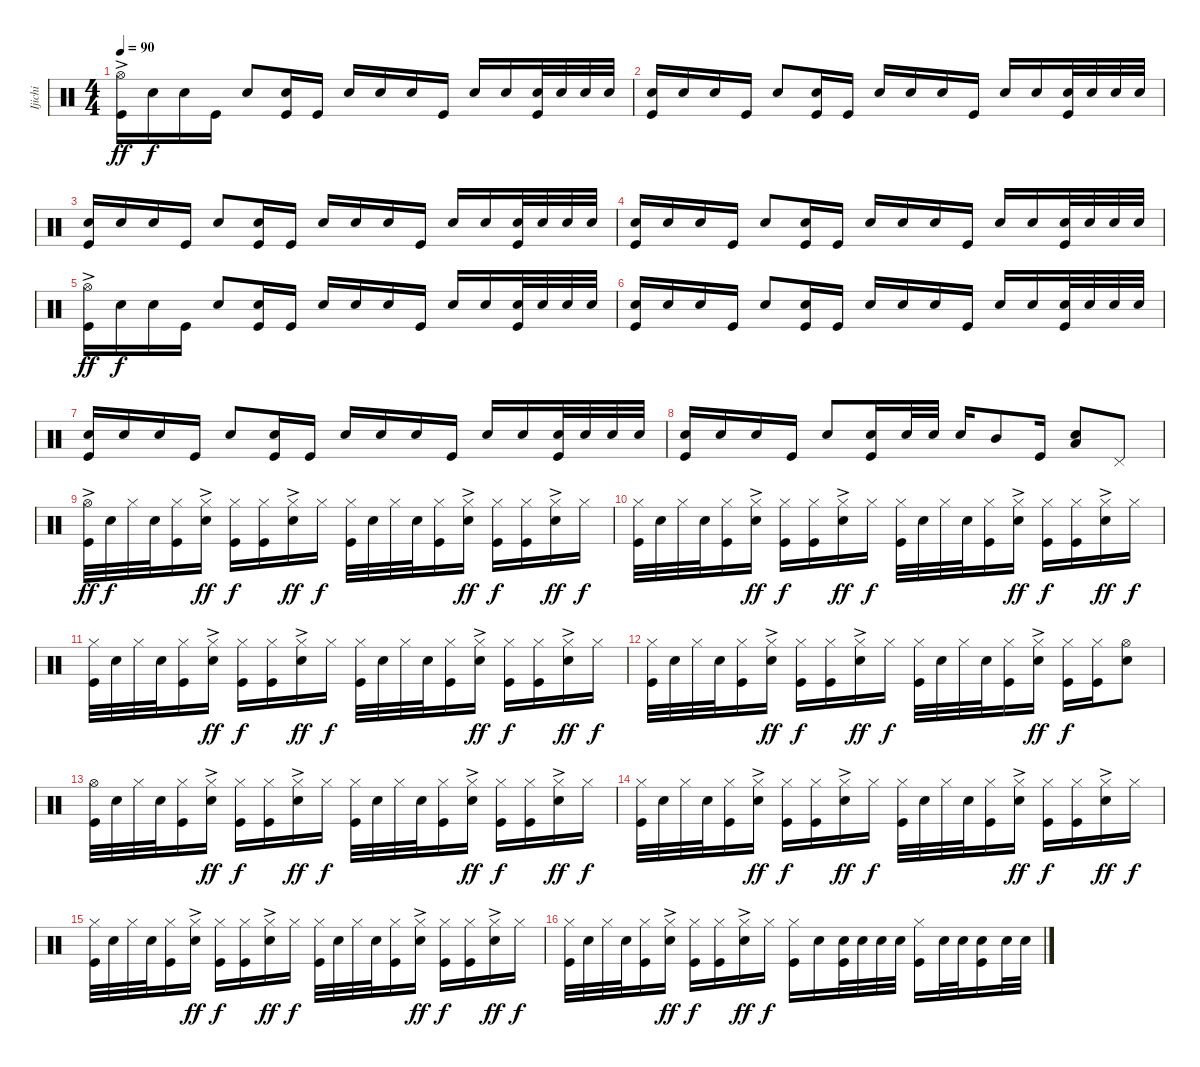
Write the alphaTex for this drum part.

\track ("Ijichi" "Ijichi") {instrument percussion}
\staff {score}
\articulation defaults
\ts (4 4)
\tempo 90
\clef neutral
\ks c
("Hi-Hat (open)"{ac} "Kick (hit)").16{dy ff} "Snare (hit) 2".16{dy f} "Snare (hit) 2".16 "Kick (hit)".16 "Snare (hit) 2".8 ("Snare (hit) 2" "Kick (hit)").16 "Kick (hit)".16 "Snare (hit) 2".16 "Snare (hit) 2".16 "Snare (hit) 2".16 "Kick (hit)".16 "Snare (hit) 2".16 "Snare (hit) 2".16 ("Snare (hit) 2" "Kick (hit)").32 "Snare (hit) 2".32 "Snare (hit) 2".32 "Snare (hit) 2".32 |
("Snare (hit) 2" "Kick (hit)").16 "Snare (hit) 2".16 "Snare (hit) 2".16 "Kick (hit)".16 "Snare (hit) 2".8 ("Snare (hit) 2" "Kick (hit)").16 "Kick (hit)".16 "Snare (hit) 2".16 "Snare (hit) 2".16 "Snare (hit) 2".16 "Kick (hit)".16 "Snare (hit) 2".16 "Snare (hit) 2".16 ("Snare (hit) 2" "Kick (hit)").32 "Snare (hit) 2".32 "Snare (hit) 2".32 "Snare (hit) 2".32 |
("Snare (hit) 2" "Kick (hit)").16 "Snare (hit) 2".16 "Snare (hit) 2".16 "Kick (hit)".16 "Snare (hit) 2".8 ("Snare (hit) 2" "Kick (hit)").16 "Kick (hit)".16 "Snare (hit) 2".16 "Snare (hit) 2".16 "Snare (hit) 2".16 "Kick (hit)".16 "Snare (hit) 2".16 "Snare (hit) 2".16 ("Snare (hit) 2" "Kick (hit)").32 "Snare (hit) 2".32 "Snare (hit) 2".32 "Snare (hit) 2".32 |
("Snare (hit) 2" "Kick (hit)").16 "Snare (hit) 2".16 "Snare (hit) 2".16 "Kick (hit)".16 "Snare (hit) 2".8 ("Snare (hit) 2" "Kick (hit)").16 "Kick (hit)".16 "Snare (hit) 2".16 "Snare (hit) 2".16 "Snare (hit) 2".16 "Kick (hit)".16 "Snare (hit) 2".16 "Snare (hit) 2".16 ("Snare (hit) 2" "Kick (hit)").32 "Snare (hit) 2".32 "Snare (hit) 2".32 "Snare (hit) 2".32 |
("Hi-Hat (open)"{ac} "Kick (hit)").16{dy ff} "Snare (hit) 2".16{dy f} "Snare (hit) 2".16 "Kick (hit)".16 "Snare (hit) 2".8 ("Snare (hit) 2" "Kick (hit)").16 "Kick (hit)".16 "Snare (hit) 2".16 "Snare (hit) 2".16 "Snare (hit) 2".16 "Kick (hit)".16 "Snare (hit) 2".16 "Snare (hit) 2".16 ("Snare (hit) 2" "Kick (hit)").32 "Snare (hit) 2".32 "Snare (hit) 2".32 "Snare (hit) 2".32 |
("Snare (hit) 2" "Kick (hit)").16 "Snare (hit) 2".16 "Snare (hit) 2".16 "Kick (hit)".16 "Snare (hit) 2".8 ("Snare (hit) 2" "Kick (hit)").16 "Kick (hit)".16 "Snare (hit) 2".16 "Snare (hit) 2".16 "Snare (hit) 2".16 "Kick (hit)".16 "Snare (hit) 2".16 "Snare (hit) 2".16 ("Snare (hit) 2" "Kick (hit)").32 "Snare (hit) 2".32 "Snare (hit) 2".32 "Snare (hit) 2".32 |
("Snare (hit) 2" "Kick (hit)").16 "Snare (hit) 2".16 "Snare (hit) 2".16 "Kick (hit)".16 "Snare (hit) 2".8 ("Snare (hit) 2" "Kick (hit)").16 "Kick (hit)".16 "Snare (hit) 2".16 "Snare (hit) 2".16 "Snare (hit) 2".16 "Kick (hit)".16 "Snare (hit) 2".16 "Snare (hit) 2".16 ("Snare (hit) 2" "Kick (hit)").32 "Snare (hit) 2".32 "Snare (hit) 2".32 "Snare (hit) 2".32 |
("Snare (hit) 2" "Kick (hit)").16 "Snare (hit) 2".16 "Snare (hit) 2".16 "Kick (hit)".16 "Snare (hit) 2".8 ("Snare (hit) 2" "Kick (hit)").16 "Snare (hit) 2".32 "Snare (hit) 2".32 "Snare (hit) 2".16 "Mid Tom (hit)".8 "Kick (hit)".16 ("Snare (hit) 2" "Low Tom (hit)").8 "Pedal Hi-Hat (hit)".8 |
("Hi-Hat (open)"{ac} "Kick (hit)").32{dy ff} "Snare (hit) 2".32{dy f} "Hi-Hat (closed)".32 "Snare (hit) 2".32 ("Hi-Hat (closed)" "Kick (hit)").16 ("Hi-Hat (closed)"{ac} "Snare (hit) 2").16{dy ff} ("Hi-Hat (closed)" "Kick (hit)").16{dy f} ("Hi-Hat (closed)" "Kick (hit)").16 ("Hi-Hat (closed)"{ac} "Snare (hit) 2").16{dy ff} "Hi-Hat (closed)".16{dy f} ("Hi-Hat (closed)" "Kick (hit)").32 "Snare (hit) 2".32 "Hi-Hat (closed)".32 "Snare (hit) 2".32 ("Hi-Hat (closed)" "Kick (hit)").16 ("Hi-Hat (closed)"{ac} "Snare (hit) 2").16{dy ff} ("Hi-Hat (closed)" "Kick (hit)").16{dy f} ("Hi-Hat (closed)" "Kick (hit)").16 ("Hi-Hat (closed)"{ac} "Snare (hit) 2").16{dy ff} "Hi-Hat (closed)".16{dy f} |
("Hi-Hat (closed)" "Kick (hit)").32 "Snare (hit) 2".32 "Hi-Hat (closed)".32 "Snare (hit) 2".32 ("Hi-Hat (closed)" "Kick (hit)").16 ("Hi-Hat (closed)"{ac} "Snare (hit) 2").16{dy ff} ("Hi-Hat (closed)" "Kick (hit)").16{dy f} ("Hi-Hat (closed)" "Kick (hit)").16 ("Hi-Hat (closed)"{ac} "Snare (hit) 2").16{dy ff} "Hi-Hat (closed)".16{dy f} ("Hi-Hat (closed)" "Kick (hit)").32 "Snare (hit) 2".32 "Hi-Hat (closed)".32 "Snare (hit) 2".32 ("Hi-Hat (closed)" "Kick (hit)").16 ("Hi-Hat (closed)"{ac} "Snare (hit) 2").16{dy ff} ("Hi-Hat (closed)" "Kick (hit)").16{dy f} ("Hi-Hat (closed)" "Kick (hit)").16 ("Hi-Hat (closed)"{ac} "Snare (hit) 2").16{dy ff} "Hi-Hat (closed)".16{dy f} |
("Hi-Hat (closed)" "Kick (hit)").32 "Snare (hit) 2".32 "Hi-Hat (closed)".32 "Snare (hit) 2".32 ("Hi-Hat (closed)" "Kick (hit)").16 ("Hi-Hat (closed)"{ac} "Snare (hit) 2").16{dy ff} ("Hi-Hat (closed)" "Kick (hit)").16{dy f} ("Hi-Hat (closed)" "Kick (hit)").16 ("Hi-Hat (closed)"{ac} "Snare (hit) 2").16{dy ff} "Hi-Hat (closed)".16{dy f} ("Hi-Hat (closed)" "Kick (hit)").32 "Snare (hit) 2".32 "Hi-Hat (closed)".32 "Snare (hit) 2".32 ("Hi-Hat (closed)" "Kick (hit)").16 ("Hi-Hat (closed)"{ac} "Snare (hit) 2").16{dy ff} ("Hi-Hat (closed)" "Kick (hit)").16{dy f} ("Hi-Hat (closed)" "Kick (hit)").16 ("Hi-Hat (closed)"{ac} "Snare (hit) 2").16{dy ff} "Hi-Hat (closed)".16{dy f} |
("Hi-Hat (closed)" "Kick (hit)").32 "Snare (hit) 2".32 "Hi-Hat (closed)".32 "Snare (hit) 2".32 ("Hi-Hat (closed)" "Kick (hit)").16 ("Hi-Hat (closed)"{ac} "Snare (hit) 2").16{dy ff} ("Hi-Hat (closed)" "Kick (hit)").16{dy f} ("Hi-Hat (closed)" "Kick (hit)").16 ("Hi-Hat (closed)"{ac} "Snare (hit) 2").16{dy ff} "Hi-Hat (closed)".16{dy f} ("Hi-Hat (closed)" "Kick (hit)").32 "Snare (hit) 2".32 "Hi-Hat (closed)".32 "Snare (hit) 2".32 ("Hi-Hat (closed)" "Kick (hit)").16 ("Hi-Hat (closed)"{ac} "Snare (hit) 2").16{dy ff} ("Hi-Hat (closed)" "Kick (hit)").16{dy f} ("Hi-Hat (closed)" "Kick (hit)").16 ("Hi-Hat (open)" "Snare (hit) 2").8 |
("Hi-Hat (open)" "Kick (hit)").32 "Snare (hit) 2".32 "Hi-Hat (closed)".32 "Snare (hit) 2".32 ("Hi-Hat (closed)" "Kick (hit)").16 ("Hi-Hat (closed)"{ac} "Snare (hit) 2").16{dy ff} ("Hi-Hat (closed)" "Kick (hit)").16{dy f} ("Hi-Hat (closed)" "Kick (hit)").16 ("Hi-Hat (closed)"{ac} "Snare (hit) 2").16{dy ff} "Hi-Hat (closed)".16{dy f} ("Hi-Hat (closed)" "Kick (hit)").32 "Snare (hit) 2".32 "Hi-Hat (closed)".32 "Snare (hit) 2".32 ("Hi-Hat (closed)" "Kick (hit)").16 ("Hi-Hat (closed)"{ac} "Snare (hit) 2").16{dy ff} ("Hi-Hat (closed)" "Kick (hit)").16{dy f} ("Hi-Hat (closed)" "Kick (hit)").16 ("Hi-Hat (closed)"{ac} "Snare (hit) 2").16{dy ff} "Hi-Hat (closed)".16{dy f} |
("Hi-Hat (closed)" "Kick (hit)").32 "Snare (hit) 2".32 "Hi-Hat (closed)".32 "Snare (hit) 2".32 ("Hi-Hat (closed)" "Kick (hit)").16 ("Hi-Hat (closed)"{ac} "Snare (hit) 2").16{dy ff} ("Hi-Hat (closed)" "Kick (hit)").16{dy f} ("Hi-Hat (closed)" "Kick (hit)").16 ("Hi-Hat (closed)"{ac} "Snare (hit) 2").16{dy ff} "Hi-Hat (closed)".16{dy f} ("Hi-Hat (closed)" "Kick (hit)").32 "Snare (hit) 2".32 "Hi-Hat (closed)".32 "Snare (hit) 2".32 ("Hi-Hat (closed)" "Kick (hit)").16 ("Hi-Hat (closed)"{ac} "Snare (hit) 2").16{dy ff} ("Hi-Hat (closed)" "Kick (hit)").16{dy f} ("Hi-Hat (closed)" "Kick (hit)").16 ("Hi-Hat (closed)"{ac} "Snare (hit) 2").16{dy ff} "Hi-Hat (closed)".16{dy f} |
("Hi-Hat (closed)" "Kick (hit)").32 "Snare (hit) 2".32 "Hi-Hat (closed)".32 "Snare (hit) 2".32 ("Hi-Hat (closed)" "Kick (hit)").16 ("Hi-Hat (closed)"{ac} "Snare (hit) 2").16{dy ff} ("Hi-Hat (closed)" "Kick (hit)").16{dy f} ("Hi-Hat (closed)" "Kick (hit)").16 ("Hi-Hat (closed)"{ac} "Snare (hit) 2").16{dy ff} "Hi-Hat (closed)".16{dy f} ("Hi-Hat (closed)" "Kick (hit)").32 "Snare (hit) 2".32 "Hi-Hat (closed)".32 "Snare (hit) 2".32 ("Hi-Hat (closed)" "Kick (hit)").16 ("Hi-Hat (closed)"{ac} "Snare (hit) 2").16{dy ff} ("Hi-Hat (closed)" "Kick (hit)").16{dy f} ("Hi-Hat (closed)" "Kick (hit)").16 ("Hi-Hat (closed)"{ac} "Snare (hit) 2").16{dy ff} "Hi-Hat (closed)".16{dy f} |
("Hi-Hat (closed)" "Kick (hit)").32 "Snare (hit) 2".32 "Hi-Hat (closed)".32 "Snare (hit) 2".32 ("Hi-Hat (closed)" "Kick (hit)").16 ("Hi-Hat (closed)"{ac} "Snare (hit) 2").16{dy ff} ("Hi-Hat (closed)" "Kick (hit)").16{dy f} ("Hi-Hat (closed)" "Kick (hit)").16 ("Hi-Hat (closed)"{ac} "Snare (hit) 2").16{dy ff} "Hi-Hat (closed)".16{dy f} ("Hi-Hat (closed)" "Kick (hit)").16 "Snare (hit) 2".16 ("Snare (hit) 2" "Kick (hit)").32 "Snare (hit) 2".32 "Snare (hit) 2".32 "Snare (hit) 2".32 ("Hi-Hat (closed)" "Kick (hit)").16 "Snare (hit) 2".32 "Snare (hit) 2".32 ("Snare (hit) 2" "Kick (hit)").16 "Snare (hit) 2".32 "Snare (hit) 2".32
